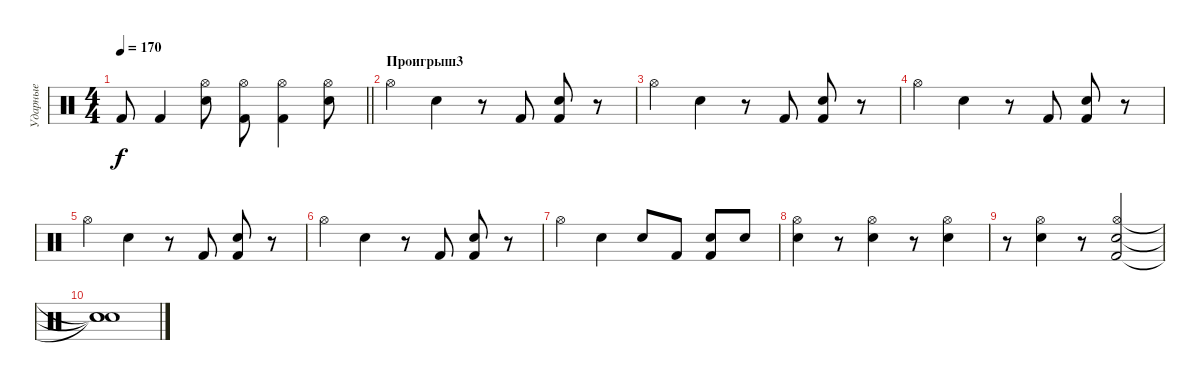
\track ("Ударные" "Ударные") {instrument percussion}
\staff {score}
\articulation defaults
\ts (4 4)
\tempo 170
\clef neutral
\barLineRight lightlight
\ks c "Kick (hit) 2".8{dy f} "Kick (hit) 2".4
("Hi-Hat (open)" "Electric Snare (hit)").8 ("Hi-Hat (open)" "Kick (hit) 2").8 ("Hi-Hat (open)" "Kick (hit) 2").4 ("Hi-Hat (open)" "Electric Snare (hit)").8 |
\section ("" "Проигрыш3")
"Hi-Hat (open)".4 "Electric Snare (hit)".4 r.8 "Kick (hit) 2".8 ("Electric Snare (hit)" "Kick (hit) 2").8 r.8 |
"Hi-Hat (open)".4 "Electric Snare (hit)".4 r.8 "Kick (hit) 2".8 ("Electric Snare (hit)" "Kick (hit) 2").8 r.8 |
"Hi-Hat (open)".4 "Electric Snare (hit)".4 r.8 "Kick (hit) 2".8 ("Electric Snare (hit)" "Kick (hit) 2").8 r.8 |
"Hi-Hat (open)".4 "Electric Snare (hit)".4 r.8 "Kick (hit) 2".8 ("Electric Snare (hit)" "Kick (hit) 2").8 r.8 |
"Hi-Hat (open)".4 "Electric Snare (hit)".4 r.8 "Kick (hit) 2".8 ("Electric Snare (hit)" "Kick (hit) 2").8 r.8 |
"Hi-Hat (open)".4 "Electric Snare (hit)".4 "Electric Snare (hit)".8 "Kick (hit) 2".8 ("Electric Snare (hit)" "Kick (hit) 2").8 "Electric Snare (hit)".8 |
("Electric Snare (hit)" "Hi-Hat (open)").4 r.8 ("Electric Snare (hit)" "Hi-Hat (open)").4 r.8 ("Electric Snare (hit)" "Hi-Hat (open)").4 |
r.8 ("Electric Snare (hit)" "Hi-Hat (open)").4 r.8 ("Kick (hit) 2" "Electric Snare (hit)" "Hi-Hat (open)").2 |
("Snare (hit)"{t} "Snare (hit)"{t} "Snare (hit)"{t}).1
